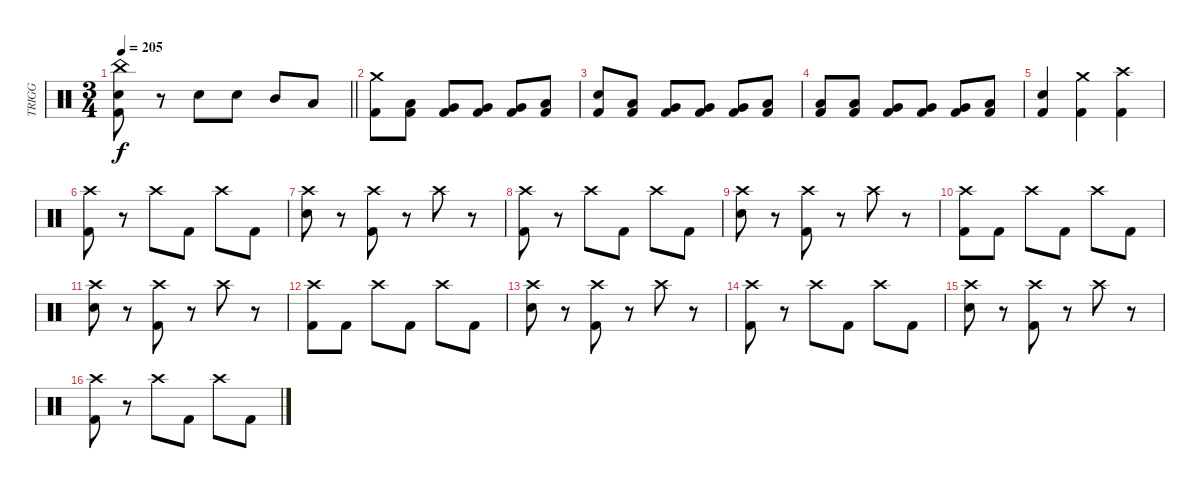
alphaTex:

\track ("TRIGG" "TRIGG") {instrument percussion}
\staff {score}
\articulation defaults
\ts (3 4)
\tempo 205
\clef neutral
\barLineRight lightlight
\ks c
("China (hit)" "Electric Snare (hit)" "Kick (hit) 2").8{dy f} r.8 "Electric Snare (hit)".8 "Electric Snare (hit)".8 "Mid Tom (hit)".8 "Low Tom (hit)".8 |
("Crash medium (hit)" "Kick (hit) 2").8 ("Low Tom (hit)" "Kick (hit) 2").8 ("Very Low Tom (hit)" "Kick (hit) 2").8 ("Very Low Tom (hit)" "Kick (hit) 2").8 ("Very Low Tom (hit)" "Kick (hit) 2").8 ("Low Tom (hit)" "Kick (hit) 2").8 |
("Electric Snare (hit)" "Kick (hit) 2").8 ("Low Tom (hit)" "Kick (hit) 2").8 ("Very Low Tom (hit)" "Kick (hit) 2").8 ("Very Low Tom (hit)" "Kick (hit) 2").8 ("Very Low Tom (hit)" "Kick (hit) 2").8 ("Low Tom (hit)" "Kick (hit) 2").8 |
("Low Tom (hit)" "Kick (hit) 2").8 ("Low Tom (hit)" "Kick (hit) 2").8 ("Very Low Tom (hit)" "Kick (hit) 2").8 ("Very Low Tom (hit)" "Kick (hit) 2").8 ("Very Low Tom (hit)" "Kick (hit) 2").8 ("Low Tom (hit)" "Kick (hit) 2").8 |
("Electric Snare (hit)" "Kick (hit) 2").4 ("Kick (hit) 2" "Crash medium (hit)").4 ("Kick (hit) 2" "Crash high (hit)").4 |
("Crash high (hit)" "Kick (hit) 2").8 r.8 "Crash high (hit)".8 "Kick (hit) 2".8 "Crash high (hit)".8 "Kick (hit) 2".8 |
("Crash high (hit)" "Electric Snare (hit)").8 r.8 ("Crash high (hit)" "Kick (hit) 2").8 r.8 "Crash high (hit)".8 r.8 |
("Crash high (hit)" "Kick (hit) 2").8 r.8 "Crash high (hit)".8 "Kick (hit) 2".8 "Crash high (hit)".8 "Kick (hit) 2".8 |
("Crash high (hit)" "Electric Snare (hit)").8 r.8 ("Crash high (hit)" "Kick (hit) 2").8 r.8 "Crash high (hit)".8 r.8 |
("Crash high (hit)" "Kick (hit) 2").8 "Kick (hit) 2".8 "Crash high (hit)".8 "Kick (hit) 2".8 "Crash high (hit)".8 "Kick (hit) 2".8 |
("Crash high (hit)" "Electric Snare (hit)").8 r.8 ("Crash high (hit)" "Kick (hit) 2").8 r.8 "Crash high (hit)".8 r.8 |
("Crash high (hit)" "Kick (hit) 2").8 "Kick (hit) 2".8 "Crash high (hit)".8 "Kick (hit) 2".8 "Crash high (hit)".8 "Kick (hit) 2".8 |
("Crash high (hit)" "Electric Snare (hit)").8 r.8 ("Crash high (hit)" "Kick (hit) 2").8 r.8 "Crash high (hit)".8 r.8 |
("Crash high (hit)" "Kick (hit) 2").8 r.8 "Crash high (hit)".8 "Kick (hit) 2".8 "Crash high (hit)".8 "Kick (hit) 2".8 |
("Crash high (hit)" "Electric Snare (hit)").8 r.8 ("Crash high (hit)" "Kick (hit) 2").8 r.8 "Crash high (hit)".8 r.8 |
("Crash high (hit)" "Kick (hit) 2").8 r.8 "Crash high (hit)".8 "Kick (hit) 2".8 "Crash high (hit)".8 "Kick (hit) 2".8
